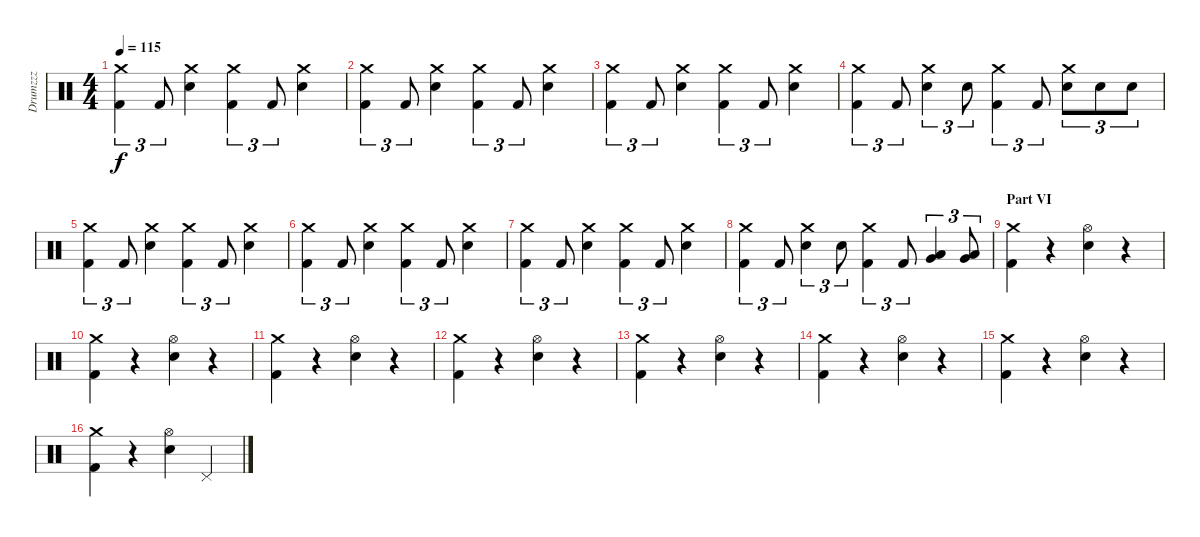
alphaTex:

\track ("Drumzzz" "Drumzzz") {instrument percussion}
\staff {score}
\articulation defaults
\ts (4 4)
\tempo 115
\clef neutral
\ks c
("Crash medium (hit)" "Kick (hit) 2").4{tu (3 2) dy f} "Kick (hit) 2".8{tu (3 2)} ("Crash medium (hit)" "Electric Snare (hit)").4 ("Crash medium (hit)" "Kick (hit) 2").4{tu (3 2)} "Kick (hit) 2".8{tu (3 2)} ("Crash medium (hit)" "Electric Snare (hit)").4 |
("Crash medium (hit)" "Kick (hit) 2").4{tu (3 2)} "Kick (hit) 2".8{tu (3 2)} ("Crash medium (hit)" "Electric Snare (hit)").4 ("Crash medium (hit)" "Kick (hit) 2").4{tu (3 2)} "Kick (hit) 2".8{tu (3 2)} ("Crash medium (hit)" "Electric Snare (hit)").4 |
("Crash medium (hit)" "Kick (hit) 2").4{tu (3 2)} "Kick (hit) 2".8{tu (3 2)} ("Crash medium (hit)" "Electric Snare (hit)").4 ("Crash medium (hit)" "Kick (hit) 2").4{tu (3 2)} "Kick (hit) 2".8{tu (3 2)} ("Crash medium (hit)" "Electric Snare (hit)").4 |
("Crash medium (hit)" "Kick (hit) 2").4{tu (3 2)} "Kick (hit) 2".8{tu (3 2)} ("Crash medium (hit)" "Electric Snare (hit)").4{tu (3 2)} "Electric Snare (hit)".8{tu (3 2)} ("Crash medium (hit)" "Kick (hit) 2").4{tu (3 2)} "Kick (hit) 2".8{tu (3 2)} ("Crash medium (hit)" "Electric Snare (hit)").8{tu (3 2)} "Electric Snare (hit)".8{tu (3 2)} "Electric Snare (hit)".8{tu (3 2)} |
("Crash medium (hit)" "Kick (hit) 2").4{tu (3 2)} "Kick (hit) 2".8{tu (3 2)} ("Crash medium (hit)" "Electric Snare (hit)").4 ("Crash medium (hit)" "Kick (hit) 2").4{tu (3 2)} "Kick (hit) 2".8{tu (3 2)} ("Crash medium (hit)" "Electric Snare (hit)").4 |
("Crash medium (hit)" "Kick (hit) 2").4{tu (3 2)} "Kick (hit) 2".8{tu (3 2)} ("Crash medium (hit)" "Electric Snare (hit)").4 ("Crash medium (hit)" "Kick (hit) 2").4{tu (3 2)} "Kick (hit) 2".8{tu (3 2)} ("Crash medium (hit)" "Electric Snare (hit)").4 |
("Crash medium (hit)" "Kick (hit) 2").4{tu (3 2)} "Kick (hit) 2".8{tu (3 2)} ("Crash medium (hit)" "Electric Snare (hit)").4 ("Crash medium (hit)" "Kick (hit) 2").4{tu (3 2)} "Kick (hit) 2".8{tu (3 2)} ("Crash medium (hit)" "Electric Snare (hit)").4 |
("Crash medium (hit)" "Kick (hit) 2").4{tu (3 2)} "Kick (hit) 2".8{tu (3 2)} ("Crash medium (hit)" "Electric Snare (hit)").4{tu (3 2)} "Electric Snare (hit)".8{tu (3 2)} ("Crash medium (hit)" "Kick (hit) 2").4{tu (3 2)} "Kick (hit) 2".8{tu (3 2)} ("Low Tom (hit)" "Very Low Tom (hit)").4{tu (3 2)} ("Low Floor Tom (hit)" "Very Low Tom (hit)").8{tu (3 2)} |
\section ("" "Part VI")
("Crash medium (hit)" "Kick (hit) 2").4 r.4 ("Hi-Hat (open)" "Electric Snare (hit)").4 r.4 |
("Crash medium (hit)" "Kick (hit) 2").4 r.4 ("Hi-Hat (open)" "Electric Snare (hit)").4 r.4 |
("Crash medium (hit)" "Kick (hit) 2").4 r.4 ("Hi-Hat (open)" "Electric Snare (hit)").4 r.4 |
("Crash medium (hit)" "Kick (hit) 2").4 r.4 ("Hi-Hat (open)" "Electric Snare (hit)").4 r.4 |
("Crash medium (hit)" "Kick (hit) 2").4 r.4 ("Hi-Hat (open)" "Electric Snare (hit)").4 r.4 |
("Crash medium (hit)" "Kick (hit) 2").4 r.4 ("Hi-Hat (open)" "Electric Snare (hit)").4 r.4 |
("Crash medium (hit)" "Kick (hit) 2").4 r.4 ("Hi-Hat (open)" "Electric Snare (hit)").4 r.4 |
("Crash medium (hit)" "Kick (hit) 2").4 r.4 ("Hi-Hat (open)" "Electric Snare (hit)").4 "Pedal Hi-Hat (hit)".4
